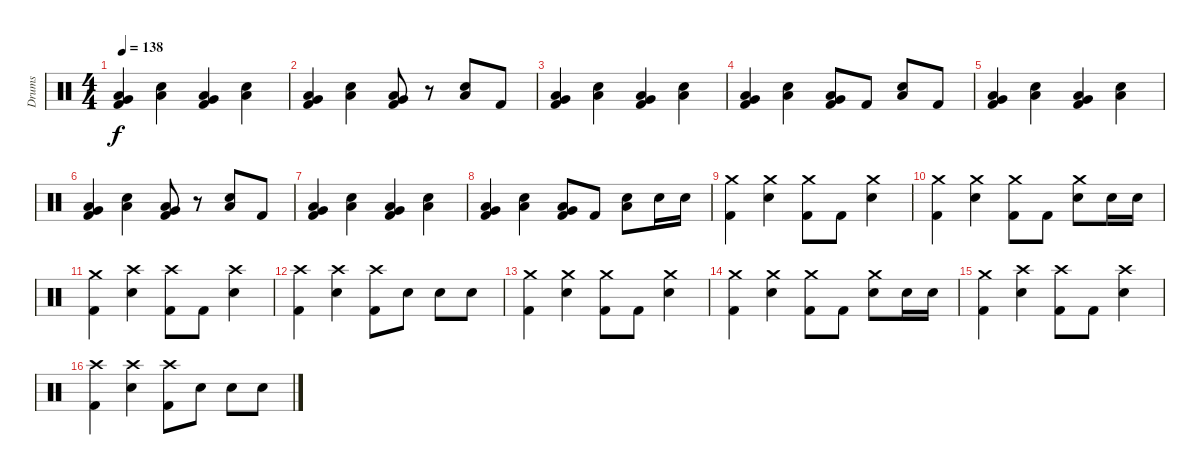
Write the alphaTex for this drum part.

\track ("Drums" "Drums") {instrument percussion}
\staff
\articulation defaults
\ts (4 4)
\tempo 138
\clef neutral
\ks c
("Low Floor Tom (hit)" "Very Low Tom (hit)" "Kick (hit) 2").4{dy f} ("Low Floor Tom (hit)" "Snare (hit) 2").4 ("Very Low Tom (hit)" "Low Floor Tom (hit)" "Kick (hit) 2").4 ("Low Floor Tom (hit)" "Snare (hit) 2").4 |
("Very Low Tom (hit)" "Low Floor Tom (hit)" "Kick (hit) 2").4 ("Low Floor Tom (hit)" "Snare (hit) 2").4 ("Very Low Tom (hit)" "Low Floor Tom (hit)" "Kick (hit) 2").8 r.8 ("Low Floor Tom (hit)" "Snare (hit) 2").8 "Kick (hit) 2".8 |
("Very Low Tom (hit)" "Low Floor Tom (hit)" "Kick (hit) 2").4 ("Low Floor Tom (hit)" "Snare (hit) 2").4 ("Very Low Tom (hit)" "Low Floor Tom (hit)" "Kick (hit) 2").4 ("Low Floor Tom (hit)" "Snare (hit) 2").4 |
("Very Low Tom (hit)" "Low Floor Tom (hit)" "Kick (hit) 2").4 ("Low Floor Tom (hit)" "Snare (hit) 2").4 ("Very Low Tom (hit)" "Low Floor Tom (hit)" "Kick (hit) 2").8 "Kick (hit) 2".8 ("Low Floor Tom (hit)" "Snare (hit) 2").8 "Kick (hit) 2".8 |
("Low Floor Tom (hit)" "Very Low Tom (hit)" "Kick (hit) 2").4 ("Low Floor Tom (hit)" "Snare (hit) 2").4 ("Very Low Tom (hit)" "Low Floor Tom (hit)" "Kick (hit) 2").4 ("Low Floor Tom (hit)" "Snare (hit) 2").4 |
("Very Low Tom (hit)" "Low Floor Tom (hit)" "Kick (hit) 2").4 ("Low Floor Tom (hit)" "Snare (hit) 2").4 ("Very Low Tom (hit)" "Low Floor Tom (hit)" "Kick (hit) 2").8 r.8 ("Low Floor Tom (hit)" "Snare (hit) 2").8 "Kick (hit) 2".8 |
("Very Low Tom (hit)" "Low Floor Tom (hit)" "Kick (hit) 2").4 ("Low Floor Tom (hit)" "Snare (hit) 2").4 ("Very Low Tom (hit)" "Low Floor Tom (hit)" "Kick (hit) 2").4 ("Low Floor Tom (hit)" "Snare (hit) 2").4 |
("Very Low Tom (hit)" "Low Floor Tom (hit)" "Kick (hit) 2").4 ("Low Floor Tom (hit)" "Snare (hit) 2").4 ("Very Low Tom (hit)" "Low Floor Tom (hit)" "Kick (hit) 2").8 "Kick (hit) 2".8 ("Low Floor Tom (hit)" "Snare (hit) 2").8 "Snare (hit) 2".16 "Snare (hit) 2".16 |
("Crash medium (hit)" "Kick (hit) 2").4 ("Crash medium (hit)" "Snare (hit) 2").4 ("Crash medium (hit)" "Kick (hit) 2").8 "Kick (hit) 2".8 ("Crash medium (hit)" "Snare (hit) 2").4 |
("Crash medium (hit)" "Kick (hit) 2").4 ("Crash medium (hit)" "Snare (hit) 2").4 ("Crash medium (hit)" "Kick (hit) 2").8 "Kick (hit) 2".8 ("Crash medium (hit)" "Snare (hit) 2").8 "Snare (hit) 2".16 "Snare (hit) 2".16 |
("Crash medium (hit)" "Kick (hit) 2").4 ("Crash high (hit)" "Snare (hit) 2").4 ("Crash high (hit)" "Kick (hit) 2").8 "Kick (hit) 2".8 ("Crash high (hit)" "Snare (hit) 2").4 |
("Crash high (hit)" "Kick (hit) 2").4 ("Crash high (hit)" "Snare (hit) 2").4 ("Crash high (hit)" "Kick (hit) 2").8 "Snare (hit) 2".8 "Snare (hit) 2".8 "Snare (hit) 2".8 |
("Crash medium (hit)" "Kick (hit) 2").4 ("Crash medium (hit)" "Snare (hit) 2").4 ("Crash medium (hit)" "Kick (hit) 2").8 "Kick (hit) 2".8 ("Crash medium (hit)" "Snare (hit) 2").4 |
("Crash medium (hit)" "Kick (hit) 2").4 ("Crash medium (hit)" "Snare (hit) 2").4 ("Crash medium (hit)" "Kick (hit) 2").8 "Kick (hit) 2".8 ("Crash medium (hit)" "Snare (hit) 2").8 "Snare (hit) 2".16 "Snare (hit) 2".16 |
("Crash medium (hit)" "Kick (hit) 2").4 ("Crash high (hit)" "Snare (hit) 2").4 ("Crash high (hit)" "Kick (hit) 2").8 "Kick (hit) 2".8 ("Crash high (hit)" "Snare (hit) 2").4 |
("Crash high (hit)" "Kick (hit) 2").4 ("Crash high (hit)" "Snare (hit) 2").4 ("Crash high (hit)" "Kick (hit) 2").8 "Snare (hit) 2".8 "Snare (hit) 2".8 "Snare (hit) 2".8
